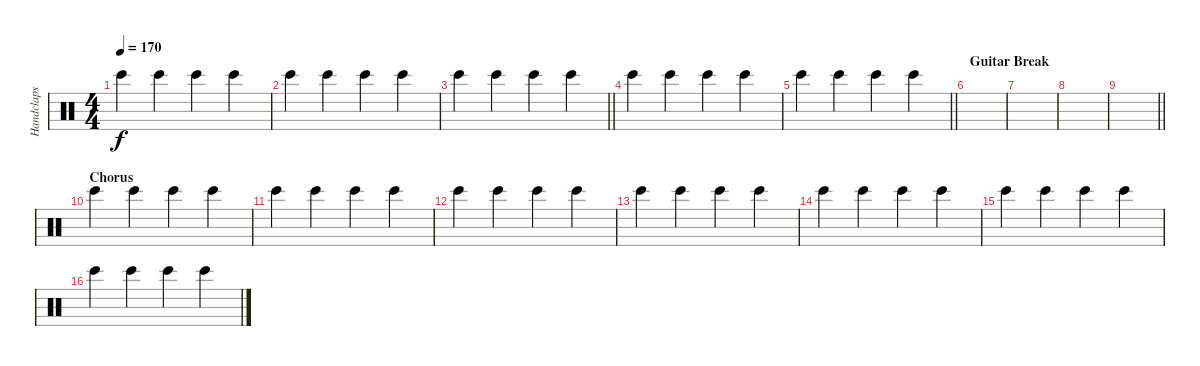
\track ("Handclaps" "Handclaps") {instrument percussion}
\staff {score}
\articulation defaults
\ts (4 4)
\tempo 170
\clef neutral
\ks c "Bongo High (hit)".4{dy f} "Bongo High (hit)".4 "Bongo High (hit)".4 "Bongo High (hit)".4
|
"Bongo High (hit)".4 "Bongo High (hit)".4 "Bongo High (hit)".4 "Bongo High (hit)".4 |
\barLineRight lightlight "Bongo High (hit)".4 "Bongo High (hit)".4 "Bongo High (hit)".4 "Bongo High (hit)".4
|
"Bongo High (hit)".4 "Bongo High (hit)".4 "Bongo High (hit)".4 "Bongo High (hit)".4 |
\barLineRight lightlight "Bongo High (hit)".4 "Bongo High (hit)".4 "Bongo High (hit)".4 "Bongo High (hit)".4
|
\section ("" "Guitar Break")
|
|
|
\barLineRight lightlight
|
\section ("" "Chorus")
"Bongo High (hit)".4 "Bongo High (hit)".4 "Bongo High (hit)".4 "Bongo High (hit)".4 |
"Bongo High (hit)".4 "Bongo High (hit)".4 "Bongo High (hit)".4 "Bongo High (hit)".4 |
"Bongo High (hit)".4 "Bongo High (hit)".4 "Bongo High (hit)".4 "Bongo High (hit)".4 |
"Bongo High (hit)".4 "Bongo High (hit)".4 "Bongo High (hit)".4 "Bongo High (hit)".4 |
"Bongo High (hit)".4 "Bongo High (hit)".4 "Bongo High (hit)".4 "Bongo High (hit)".4 |
"Bongo High (hit)".4 "Bongo High (hit)".4 "Bongo High (hit)".4 "Bongo High (hit)".4 |
"Bongo High (hit)".4 "Bongo High (hit)".4 "Bongo High (hit)".4 "Bongo High (hit)".4
